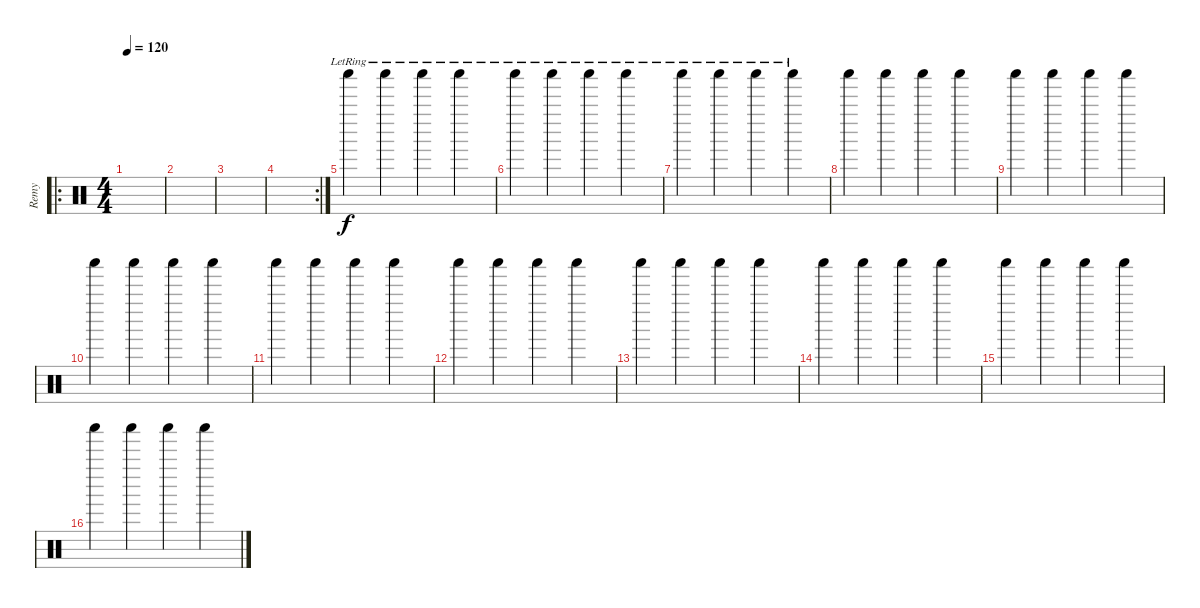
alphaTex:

\track ("Remy" "Remy") {instrument percussion}
\staff {score}
\articulation defaults
\ro
\ts (4 4)
\tempo 120
\clef neutral
\ks c
|
|
|
\rc 2
|
"Shaker (hit)"{lr}.4 "Shaker (hit)"{lr}.4 "Shaker (hit)"{lr}.4 "Shaker (hit)"{lr}.4 |
"Shaker (hit)"{lr}.4 "Shaker (hit)"{lr}.4 "Shaker (hit)"{lr}.4 "Shaker (hit)"{lr}.4 |
"Shaker (hit)"{lr}.4 "Shaker (hit)"{lr}.4 "Shaker (hit)"{lr}.4 "Shaker (hit)"{lr}.4 |
"Shaker (hit)".4 "Shaker (hit)".4 "Shaker (hit)".4 "Shaker (hit)".4 |
"Shaker (hit)".4 "Shaker (hit)".4 "Shaker (hit)".4 "Shaker (hit)".4 |
"Shaker (hit)".4 "Shaker (hit)".4 "Shaker (hit)".4 "Shaker (hit)".4 |
"Shaker (hit)".4 "Shaker (hit)".4 "Shaker (hit)".4 "Shaker (hit)".4 |
"Shaker (hit)".4 "Shaker (hit)".4 "Shaker (hit)".4 "Shaker (hit)".4 |
"Shaker (hit)".4 "Shaker (hit)".4 "Shaker (hit)".4 "Shaker (hit)".4 |
"Shaker (hit)".4 "Shaker (hit)".4 "Shaker (hit)".4 "Shaker (hit)".4 |
"Shaker (hit)".4 "Shaker (hit)".4 "Shaker (hit)".4 "Shaker (hit)".4 |
"Shaker (hit)".4 "Shaker (hit)".4 "Shaker (hit)".4 "Shaker (hit)".4
